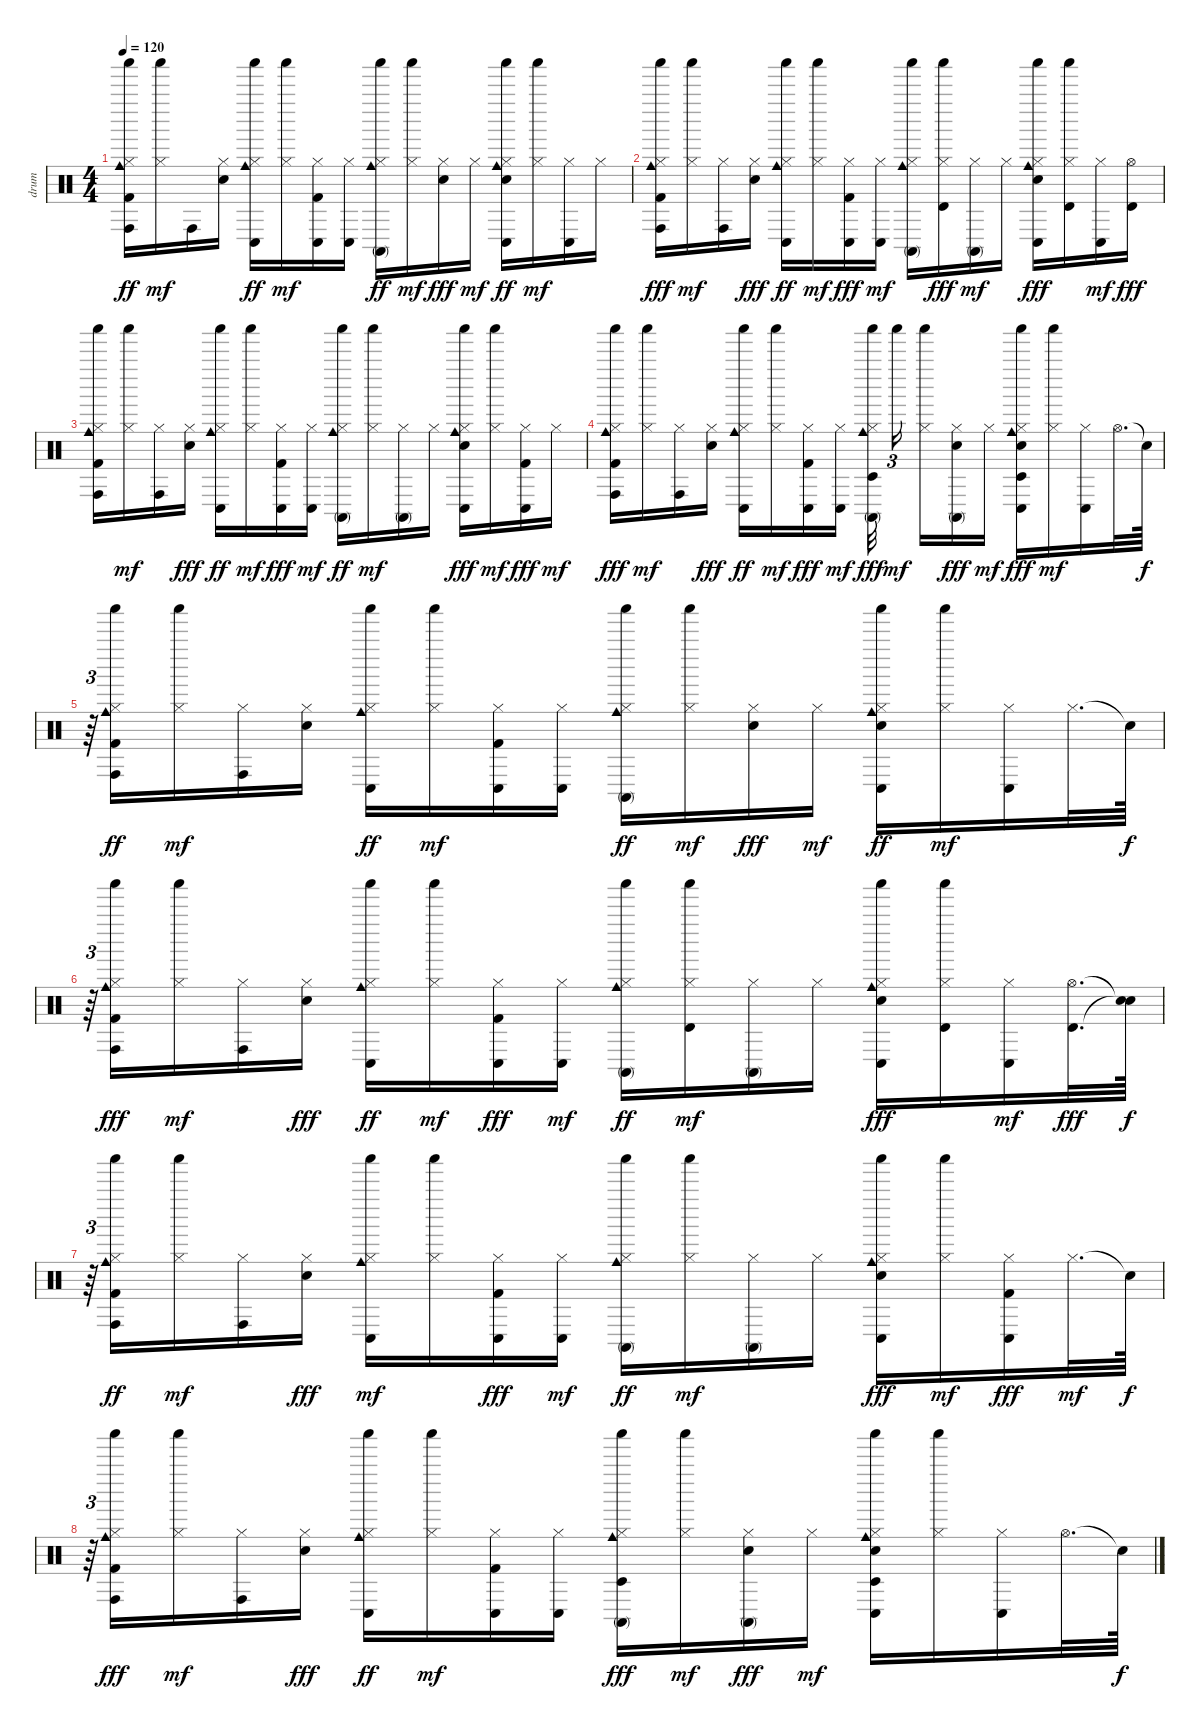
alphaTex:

\track ("drum" "drum") {instrument percussion}
\staff {score}
\articulation defaults
\ts (4 4)
\tempo 120
\clef neutral
\ks c
("Conga high (hit)" "Shaker (hit)" "Cowbell medium (hit)" "Kick (hit) 2" "Hi-Hat (closed)").16{dy ff} ("Shaker (hit)" "Hi-Hat (closed)").16{dy mf} "Conga high (hit)".16 ("Electric Snare (hit)" "Hi-Hat (closed)").16 ("Conga low (hit)" "Cowbell medium (hit)" "Shaker (hit)" "Hi-Hat (closed)").16{dy ff} ("Shaker (hit)" "Hi-Hat (closed)").16{dy mf} ("Conga low (hit)" "Kick (hit) 2" "Hi-Hat (closed)").16 ("Conga low (hit)" "Hi-Hat (closed)").16 ("Conga high (mute)" "Shaker (hit)" "Cowbell medium (hit)" "Hi-Hat (closed)").16{dy ff} ("Shaker (hit)" "Hi-Hat (closed)").16{dy mf} ("Hi-Hat (closed)" "Electric Snare (hit)").16{dy fff} "Hi-Hat (closed)".16{dy mf} ("Conga low (hit)" "Shaker (hit)" "Cowbell medium (hit)" "Electric Snare (hit)" "Hi-Hat (closed)").16{dy ff} ("Shaker (hit)" "Hi-Hat (closed)").16{dy mf} ("Conga low (hit)" "Hi-Hat (closed)").16 "Hi-Hat (closed)".16 |
("Conga high (hit)" "Shaker (hit)" "Cowbell medium (hit)" "Hi-Hat (closed)" "Kick (hit) 2").16{dy fff} ("Shaker (hit)" "Hi-Hat (closed)").16{dy mf} ("Conga high (hit)" "Hi-Hat (closed)").16 ("Hi-Hat (closed)" "Electric Snare (hit)").16{dy fff} ("Conga low (hit)" "Cowbell medium (hit)" "Shaker (hit)" "Hi-Hat (closed)").16{dy ff} ("Shaker (hit)" "Hi-Hat (closed)").16{dy mf} ("Conga low (hit)" "Hi-Hat (closed)" "Kick (hit) 2").16{dy fff} ("Conga low (hit)" "Hi-Hat (closed)").16{dy mf} ("Conga high (mute)" "Cowbell medium (hit)" "Hi-Hat (closed)" "Shaker (hit)").16 ("Shaker (hit)" "Hi-Hat (closed)" "Timbale high (hit)").16{dy fff} ("Conga high (mute)" "Hi-Hat (closed)").16{dy mf} "Hi-Hat (closed)".16 ("Conga low (hit)" "Cowbell medium (hit)" "Shaker (hit)" "Hi-Hat (closed)" "Electric Snare (hit)").16{dy fff} ("Shaker (hit)" "Hi-Hat (closed)" "Timbale high (hit)").16 ("Conga low (hit)" "Hi-Hat (closed)").16{dy mf} ("Hi-Hat (open)" "Timbale high (hit)").16{dy fff} |
("Conga high (hit)" "Shaker (hit)" "Cowbell medium (hit)" "Hi-Hat (closed)" "Kick (hit) 2").16 ("Shaker (hit)" "Hi-Hat (closed)").16{dy mf} ("Conga high (hit)" "Hi-Hat (closed)").16 ("Hi-Hat (closed)" "Electric Snare (hit)").16{dy fff} ("Conga low (hit)" "Cowbell medium (hit)" "Shaker (hit)" "Hi-Hat (closed)").16{dy ff} ("Shaker (hit)" "Hi-Hat (closed)").16{dy mf} ("Hi-Hat (closed)" "Conga low (hit)" "Kick (hit) 2").16{dy fff} ("Conga low (hit)" "Hi-Hat (closed)").16{dy mf} ("Conga high (mute)" "Cowbell medium (hit)" "Shaker (hit)" "Hi-Hat (closed)").16{dy ff} ("Shaker (hit)" "Hi-Hat (closed)").16{dy mf} ("Conga high (mute)" "Hi-Hat (closed)").16 "Hi-Hat (closed)".16 ("Conga low (hit)" "Cowbell medium (hit)" "Shaker (hit)" "Hi-Hat (closed)" "Electric Snare (hit)").16{dy fff} ("Shaker (hit)" "Hi-Hat (closed)").16{dy mf} ("Conga low (hit)" "Hi-Hat (closed)" "Kick (hit) 2").16{dy fff} "Hi-Hat (closed)".16{dy mf} |
("Conga high (hit)" "Cowbell medium (hit)" "Shaker (hit)" "Hi-Hat (closed)" "Kick (hit) 2").16{dy fff} ("Shaker (hit)" "Hi-Hat (closed)").16{dy mf} ("Hi-Hat (closed)" "Conga high (hit)").16 ("Hi-Hat (closed)" "Electric Snare (hit)").16{dy fff} ("Conga low (hit)" "Cowbell medium (hit)" "Shaker (hit)" "Hi-Hat (closed)").16{dy ff} ("Shaker (hit)" "Hi-Hat (closed)").16{dy mf} ("Conga low (hit)" "Hi-Hat (closed)" "Kick (hit) 2").16{dy fff} ("Conga low (hit)" "Hi-Hat (closed)").16{dy mf} ("Conga high (mute)" "Cowbell medium (hit)" "Shaker (hit)" "Hi-Hat (closed)" "Timbale low (hit)").32{dy fff beam splitsecondary} "Shaker (hit)".16{tu (3 2) dy mf beam splitsecondary} ("Shaker (hit)" "Hi-Hat (closed)").16 ("Conga high (mute)" "Hi-Hat (closed)" "Electric Snare (hit)").16{dy fff} "Hi-Hat (closed)".16{dy mf} ("Conga low (hit)" "Hi-Hat (closed)" "Shaker (hit)" "Cowbell medium (hit)" "Electric Snare (hit)" "Timbale low (hit)").16{dy fff} ("Shaker (hit)" "Hi-Hat (closed)").16{dy mf} ("Conga low (hit)" "Hi-Hat (closed)").16 "Hi-Hat (open)".32{d} "Snare (hit)"{t}.64{dy f} |
r.64{tu (3 2)} ("Conga high (hit)" "Shaker (hit)" "Cowbell medium (hit)" "Kick (hit) 2" "Hi-Hat (closed)").16{dy ff} ("Shaker (hit)" "Hi-Hat (closed)").16{dy mf} ("Conga high (hit)" "Hi-Hat (closed)").16 ("Electric Snare (hit)" "Hi-Hat (closed)").16 ("Conga low (hit)" "Cowbell medium (hit)" "Shaker (hit)" "Hi-Hat (closed)").16{dy ff} ("Shaker (hit)" "Hi-Hat (closed)").16{dy mf} ("Conga low (hit)" "Kick (hit) 2" "Hi-Hat (closed)").16 ("Hi-Hat (closed)" "Conga low (hit)").16 ("Conga high (mute)" "Cowbell medium (hit)" "Shaker (hit)" "Hi-Hat (closed)").16{dy ff} ("Shaker (hit)" "Hi-Hat (closed)").16{dy mf} ("Hi-Hat (closed)" "Electric Snare (hit)").16{dy fff} "Hi-Hat (closed)".16{dy mf} ("Conga low (hit)" "Shaker (hit)" "Cowbell medium (hit)" "Electric Snare (hit)" "Hi-Hat (closed)").16{dy ff} ("Shaker (hit)" "Hi-Hat (closed)").16{dy mf} ("Conga low (hit)" "Hi-Hat (closed)").16 "Hi-Hat (closed)".32{d} "Snare (hit)"{t}.64{dy f} |
r.64{tu (3 2)} ("Conga high (hit)" "Shaker (hit)" "Cowbell medium (hit)" "Hi-Hat (closed)" "Kick (hit) 2").16{dy fff} ("Shaker (hit)" "Hi-Hat (closed)").16{dy mf} ("Conga high (hit)" "Hi-Hat (closed)").16 ("Hi-Hat (closed)" "Electric Snare (hit)").16{dy fff} ("Conga low (hit)" "Cowbell medium (hit)" "Shaker (hit)" "Hi-Hat (closed)").16{dy ff} ("Shaker (hit)" "Hi-Hat (closed)").16{dy mf} ("Conga low (hit)" "Hi-Hat (closed)" "Kick (hit) 2").16{dy fff} ("Conga low (hit)" "Hi-Hat (closed)").16{dy mf} ("Conga high (mute)" "Cowbell medium (hit)" "Shaker (hit)" "Hi-Hat (closed)").16{dy ff} ("Shaker (hit)" "Timbale high (hit)" "Hi-Hat (closed)").16{dy mf} ("Conga high (mute)" "Hi-Hat (closed)").16 "Hi-Hat (closed)".16 ("Conga low (hit)" "Cowbell medium (hit)" "Shaker (hit)" "Hi-Hat (closed)" "Electric Snare (hit)").16{dy fff} ("Shaker (hit)" "Hi-Hat (closed)" "Timbale high (hit)").16 ("Conga low (hit)" "Hi-Hat (closed)").16{dy mf} ("Hi-Hat (open)" "Timbale high (hit)").32{d dy fff} ("Snare (hit)"{t} "Snare (hit)"{t}).64{dy f} |
r.64{tu (3 2)} ("Conga high (hit)" "Shaker (hit)" "Cowbell medium (hit)" "Kick (hit) 2" "Hi-Hat (closed)").16{dy ff} ("Shaker (hit)" "Hi-Hat (closed)").16{dy mf} ("Conga high (hit)" "Hi-Hat (closed)").16 ("Hi-Hat (closed)" "Electric Snare (hit)").16{dy fff} ("Conga low (hit)" "Cowbell medium (hit)" "Hi-Hat (closed)" "Shaker (hit)").16{dy mf} ("Shaker (hit)" "Hi-Hat (closed)").16 ("Conga low (hit)" "Hi-Hat (closed)" "Kick (hit) 2").16{dy fff} ("Conga low (hit)" "Hi-Hat (closed)").16{dy mf} ("Conga high (mute)" "Cowbell medium (hit)" "Shaker (hit)" "Hi-Hat (closed)").16{dy ff} ("Shaker (hit)" "Hi-Hat (closed)").16{dy mf} ("Conga high (mute)" "Hi-Hat (closed)").16 "Hi-Hat (closed)".16 ("Conga low (hit)" "Cowbell medium (hit)" "Shaker (hit)" "Hi-Hat (closed)" "Electric Snare (hit)").16{dy fff} ("Shaker (hit)" "Hi-Hat (closed)").16{dy mf} ("Conga low (hit)" "Hi-Hat (closed)" "Kick (hit) 2").16{dy fff} "Hi-Hat (closed)".32{d dy mf} "Snare (hit)"{t}.64{dy f} |
r.64{tu (3 2)} ("Conga high (hit)" "Cowbell medium (hit)" "Shaker (hit)" "Hi-Hat (closed)" "Kick (hit) 2").16{dy fff} ("Shaker (hit)" "Hi-Hat (closed)").16{dy mf} ("Conga high (hit)" "Hi-Hat (closed)").16 ("Hi-Hat (closed)" "Electric Snare (hit)").16{dy fff} ("Conga low (hit)" "Cowbell medium (hit)" "Shaker (hit)" "Hi-Hat (closed)").16{dy ff} ("Shaker (hit)" "Hi-Hat (closed)").16{dy mf} ("Kick (hit) 2" "Hi-Hat (closed)" "Conga low (hit)").16 ("Conga low (hit)" "Hi-Hat (closed)").16 ("Hi-Hat (closed)" "Shaker (hit)" "Cowbell medium (hit)" "Conga high (mute)" "Timbale low (hit)").16{dy fff} ("Shaker (hit)" "Hi-Hat (closed)").16{dy mf} ("Conga high (mute)" "Hi-Hat (closed)" "Electric Snare (hit)").16{dy fff} "Hi-Hat (closed)".16{dy mf} ("Conga low (hit)" "Hi-Hat (closed)" "Timbale low (hit)" "Electric Snare (hit)" "Cowbell medium (hit)" "Shaker (hit)").16 ("Shaker (hit)" "Hi-Hat (closed)").16 ("Conga low (hit)" "Hi-Hat (closed)").16 "Hi-Hat (open)".32{d} "Snare (hit)"{t}.64{dy f}
